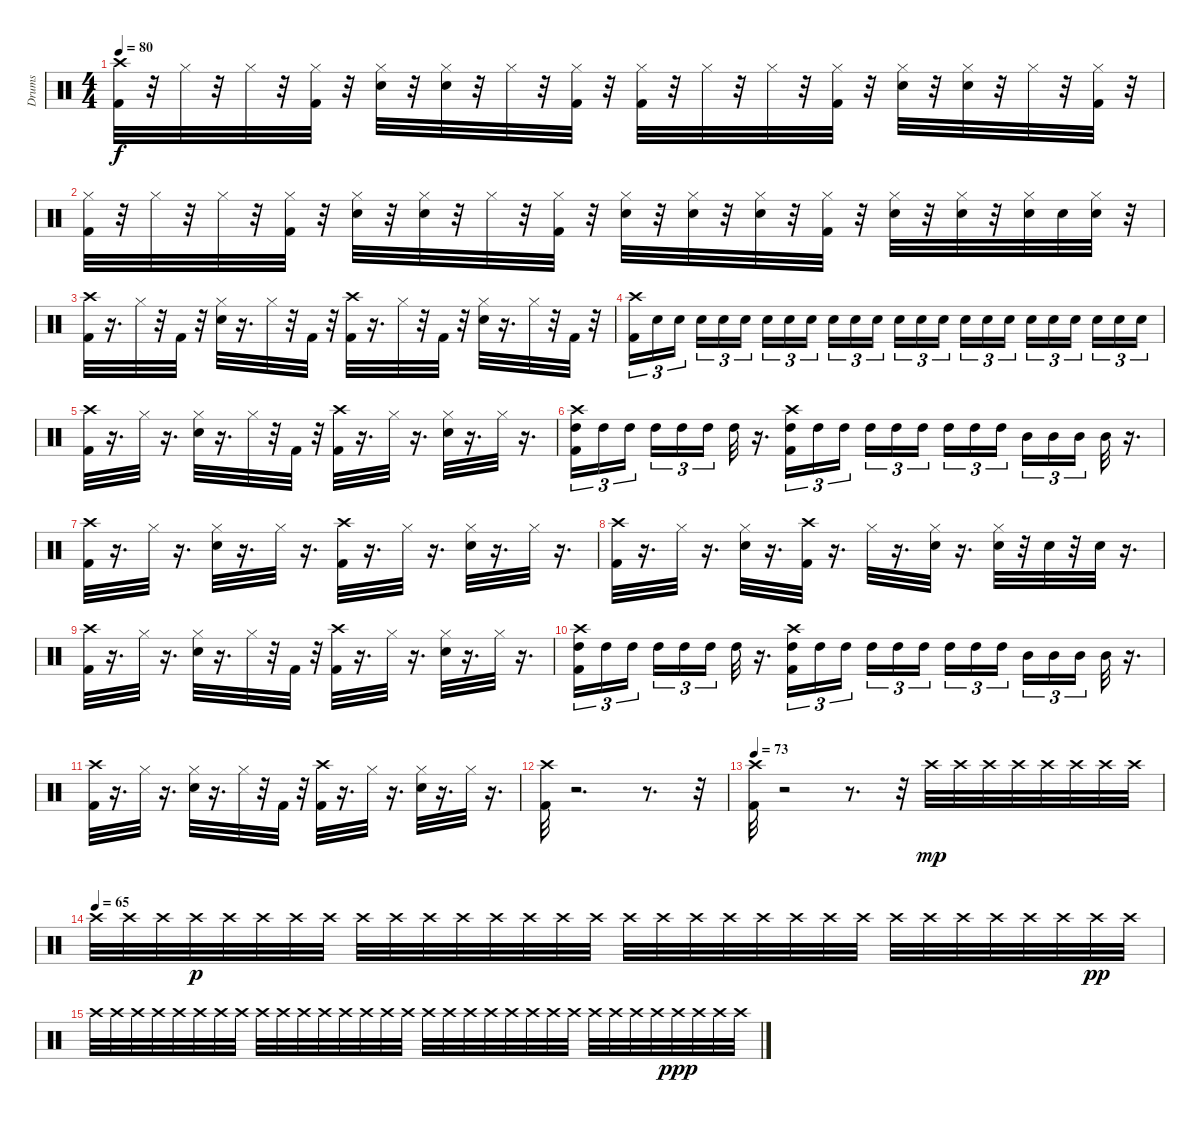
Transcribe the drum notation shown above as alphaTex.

\track ("Drums" "Drums") {instrument percussion}
\staff {score}
\articulation defaults
\ts (4 4)
\tempo 80
\clef neutral
\ks c
("Crash high (hit)" "Kick (hit) 2").32{dy f} r.32 "Hi-Hat (closed)".32 r.32 "Hi-Hat (closed)".32 r.32 ("Hi-Hat (closed)" "Kick (hit) 2").32 r.32 ("Hi-Hat (closed)" "Snare (hit) 2").32 r.32 ("Hi-Hat (closed)" "Snare (hit) 2").32 r.32 "Hi-Hat (closed)".32 r.32 ("Hi-Hat (closed)" "Kick (hit) 2").32 r.32 ("Hi-Hat (closed)" "Kick (hit) 2").32 r.32 "Hi-Hat (closed)".32 r.32 "Hi-Hat (closed)".32 r.32 ("Hi-Hat (closed)" "Kick (hit) 2").32 r.32 ("Hi-Hat (closed)" "Snare (hit) 2").32 r.32 ("Hi-Hat (closed)" "Snare (hit) 2").32 r.32 "Hi-Hat (closed)".32 r.32 ("Hi-Hat (closed)" "Kick (hit) 2").32 r.32 |
("Kick (hit) 2" "Hi-Hat (closed)").32 r.32 "Hi-Hat (closed)".32 r.32 "Hi-Hat (closed)".32 r.32 ("Kick (hit) 2" "Hi-Hat (closed)").32 r.32 ("Snare (hit) 2" "Hi-Hat (closed)").32 r.32 ("Snare (hit) 2" "Hi-Hat (closed)").32 r.32 "Hi-Hat (closed)".32 r.32 ("Kick (hit) 2" "Hi-Hat (closed)").32 r.32 ("Snare (hit) 2" "Hi-Hat (closed)").32 r.32 ("Snare (hit) 2" "Hi-Hat (closed)").32 r.32 ("Snare (hit) 2" "Hi-Hat (closed)").32 r.32 ("Kick (hit) 2" "Hi-Hat (closed)").32 r.32 ("Snare (hit) 2" "Hi-Hat (closed)").32 r.32 ("Snare (hit) 2" "Hi-Hat (closed)").32 r.32 ("Snare (hit) 2" "Hi-Hat (closed)").32 "Snare (hit) 2".32 ("Snare (hit) 2" "Hi-Hat (closed)").32 r.32 |
("Crash high (hit)" "Kick (hit) 2").32 r.16{d} "Hi-Hat (closed)".32 r.32 "Kick (hit) 2".32 r.32 ("Hi-Hat (closed)" "Snare (hit) 2").32 r.16{d} "Hi-Hat (closed)".32 r.32 "Kick (hit) 2".32 r.32 ("Crash high (hit)" "Kick (hit) 2").32 r.16{d} "Hi-Hat (closed)".32 r.32 "Kick (hit) 2".32 r.32 ("Hi-Hat (closed)" "Snare (hit) 2").32 r.16{d} "Hi-Hat (closed)".32 r.32 "Kick (hit) 2".32 r.32 |
("Crash high (hit)" "Kick (hit) 2").16{tu (3 2)} "Snare (hit) 2".16{tu (3 2)} "Snare (hit) 2".16{tu (3 2)} "Snare (hit) 2".16{tu (3 2)} "Snare (hit) 2".16{tu (3 2)} "Snare (hit) 2".16{tu (3 2)} "Snare (hit) 2".16{tu (3 2)} "Snare (hit) 2".16{tu (3 2)} "Snare (hit) 2".16{tu (3 2)} "Snare (hit) 2".16{tu (3 2)} "Snare (hit) 2".16{tu (3 2)} "Snare (hit) 2".16{tu (3 2)} "Snare (hit) 2".16{tu (3 2)} "Snare (hit) 2".16{tu (3 2)} "Snare (hit) 2".16{tu (3 2)} "Snare (hit) 2".16{tu (3 2)} "Snare (hit) 2".16{tu (3 2)} "Snare (hit) 2".16{tu (3 2)} "Snare (hit) 2".16{tu (3 2)} "Snare (hit) 2".16{tu (3 2)} "Snare (hit) 2".16{tu (3 2)} "Snare (hit) 2".16{tu (3 2)} "Snare (hit) 2".16{tu (3 2)} "Snare (hit) 2".16{tu (3 2)} |
("Crash high (hit)" "Kick (hit) 2").32 r.16{d} "Hi-Hat (closed)".32 r.16{d} ("Hi-Hat (closed)" "Snare (hit) 2").32 r.16{d} "Hi-Hat (closed)".32 r.32 "Kick (hit) 2".32 r.32 ("Crash high (hit)" "Kick (hit) 2").32 r.16{d} "Hi-Hat (closed)".32 r.16{d} ("Hi-Hat (closed)" "Snare (hit) 2").32 r.16{d} "Hi-Hat (closed)".32 r.16{d} |
("High Tom (hit)" "Kick (hit) 2" "Crash high (hit)").16{tu (3 2)} "High Tom (hit)".16{tu (3 2)} "High Tom (hit)".16{tu (3 2)} "High Tom (hit)".16{tu (3 2)} "High Tom (hit)".16{tu (3 2)} "High Tom (hit)".16{tu (3 2)} "High Tom (hit)".32 r.16{d} ("High Tom (hit)" "Kick (hit) 2" "Crash high (hit)").16{tu (3 2)} "High Tom (hit)".16{tu (3 2)} "High Tom (hit)".16{tu (3 2)} "High Tom (hit)".16{tu (3 2)} "High Tom (hit)".16{tu (3 2)} "High Tom (hit)".16{tu (3 2)} "High Tom (hit)".16{tu (3 2)} "High Tom (hit)".16{tu (3 2)} "High Tom (hit)".16{tu (3 2)} "Mid Tom (hit)".16{tu (3 2)} "Mid Tom (hit)".16{tu (3 2)} "Mid Tom (hit)".16{tu (3 2)} "Mid Tom (hit)".32 r.16{d} |
("Crash high (hit)" "Kick (hit) 2").32 r.16{d} "Hi-Hat (closed)".32 r.16{d} ("Hi-Hat (closed)" "Snare (hit) 2").32 r.16{d} "Hi-Hat (closed)".32 r.16{d} ("Crash high (hit)" "Kick (hit) 2").32 r.16{d} "Hi-Hat (closed)".32 r.16{d} ("Hi-Hat (closed)" "Snare (hit) 2").32 r.16{d} "Hi-Hat (closed)".32 r.16{d} |
("Crash high (hit)" "Kick (hit) 2").32 r.16{d} "Hi-Hat (closed)".32 r.16{d} ("Hi-Hat (closed)" "Snare (hit) 2").32 r.16{d} ("Crash high (hit)" "Kick (hit) 2").32 r.16{d} "Hi-Hat (closed)".32 r.16{d} ("Hi-Hat (closed)" "Snare (hit) 2").32 r.16{d} ("Hi-Hat (closed)" "Snare (hit) 2").32 r.32 "Snare (hit) 2".32 r.32 "Snare (hit) 2".32 r.16{d} |
("Crash high (hit)" "Kick (hit) 2").32 r.16{d} "Hi-Hat (closed)".32 r.16{d} ("Hi-Hat (closed)" "Snare (hit) 2").32 r.16{d} "Hi-Hat (closed)".32 r.32 "Kick (hit) 2".32 r.32 ("Crash high (hit)" "Kick (hit) 2").32 r.16{d} "Hi-Hat (closed)".32 r.16{d} ("Hi-Hat (closed)" "Snare (hit) 2").32 r.16{d} "Hi-Hat (closed)".32 r.16{d} |
("High Tom (hit)" "Kick (hit) 2" "Crash high (hit)").16{tu (3 2)} "High Tom (hit)".16{tu (3 2)} "High Tom (hit)".16{tu (3 2)} "High Tom (hit)".16{tu (3 2)} "High Tom (hit)".16{tu (3 2)} "High Tom (hit)".16{tu (3 2)} "High Tom (hit)".32 r.16{d} ("High Tom (hit)" "Kick (hit) 2" "Crash high (hit)").16{tu (3 2)} "High Tom (hit)".16{tu (3 2)} "High Tom (hit)".16{tu (3 2)} "High Tom (hit)".16{tu (3 2)} "High Tom (hit)".16{tu (3 2)} "High Tom (hit)".16{tu (3 2)} "High Tom (hit)".16{tu (3 2)} "High Tom (hit)".16{tu (3 2)} "High Tom (hit)".16{tu (3 2)} "Mid Tom (hit)".16{tu (3 2)} "Mid Tom (hit)".16{tu (3 2)} "Mid Tom (hit)".16{tu (3 2)} "Mid Tom (hit)".32 r.16{d} |
("Crash high (hit)" "Kick (hit) 2").32 r.16{d} "Hi-Hat (closed)".32 r.16{d} ("Hi-Hat (closed)" "Snare (hit) 2").32 r.16{d} "Hi-Hat (closed)".32 r.32 "Kick (hit) 2".32 r.32 ("Crash high (hit)" "Kick (hit) 2").32 r.16{d} "Hi-Hat (closed)".32 r.16{d} ("Hi-Hat (closed)" "Snare (hit) 2").32 r.16{d} "Hi-Hat (closed)".32 r.16{d} |
("Crash high (hit)" "Kick (hit) 2").32 r.2{d} r.8{d} r.32 |
\tempo 73
("Crash high (hit)" "Kick (hit) 2").32 r.2 r.8{d} r.32 "Crash high (hit)".32{dy mp} "Crash high (hit)".32 "Crash high (hit)".32 "Crash high (hit)".32 "Crash high (hit)".32 "Crash high (hit)".32 "Crash high (hit)".32 "Crash high (hit)".32 |
\tempo (65)
"Crash high (hit)".32 "Crash high (hit)".32 "Crash high (hit)".32 "Crash high (hit)".32{dy p} "Crash high (hit)".32 "Crash high (hit)".32 "Crash high (hit)".32 "Crash high (hit)".32 "Crash high (hit)".32 "Crash high (hit)".32 "Crash high (hit)".32 "Crash high (hit)".32 "Crash high (hit)".32 "Crash high (hit)".32 "Crash high (hit)".32 "Crash high (hit)".32 "Crash high (hit)".32 "Crash high (hit)".32 "Crash high (hit)".32 "Crash high (hit)".32 "Crash high (hit)".32 "Crash high (hit)".32 "Crash high (hit)".32 "Crash high (hit)".32 "Crash high (hit)".32 "Crash high (hit)".32 "Crash high (hit)".32 "Crash high (hit)".32 "Crash high (hit)".32 "Crash high (hit)".32 "Crash high (hit)".32{dy pp} "Crash high (hit)".32 |
"Crash high (hit)".32 "Crash high (hit)".32 "Crash high (hit)".32 "Crash high (hit)".32 "Crash high (hit)".32 "Crash high (hit)".32 "Crash high (hit)".32 "Crash high (hit)".32 "Crash high (hit)".32 "Crash high (hit)".32 "Crash high (hit)".32 "Crash high (hit)".32 "Crash high (hit)".32 "Crash high (hit)".32 "Crash high (hit)".32 "Crash high (hit)".32 "Crash high (hit)".32 "Crash high (hit)".32 "Crash high (hit)".32 "Crash high (hit)".32 "Crash high (hit)".32 "Crash high (hit)".32 "Crash high (hit)".32 "Crash high (hit)".32 "Crash high (hit)".32 "Crash high (hit)".32 "Crash high (hit)".32 "Crash high (hit)".32 "Crash high (hit)".32{dy ppp} "Crash high (hit)".32 "Crash high (hit)".32 "Crash high (hit)".32
